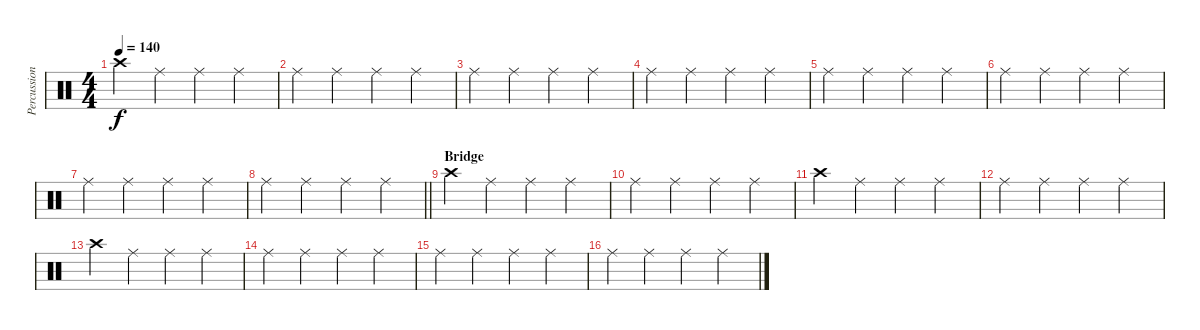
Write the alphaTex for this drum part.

\track ("Percussion" "Percussion") {instrument percussion}
\staff {score}
\articulation defaults
\ts (4 4)
\tempo 140
\clef neutral
\ks c "Crash high (hit)".4{dy f} "Ride (middle)".4 "Ride (middle)".4 "Ride (middle)".4
|
"Ride (middle)".4 "Ride (middle)".4 "Ride (middle)".4 "Ride (middle)".4 |
"Ride (middle)".4 "Ride (middle)".4 "Ride (middle)".4 "Ride (middle)".4 |
"Ride (middle)".4 "Ride (middle)".4 "Ride (middle)".4 "Ride (middle)".4 |
"Ride (middle)".4 "Ride (middle)".4 "Ride (middle)".4 "Ride (middle)".4 |
"Ride (middle)".4 "Ride (middle)".4 "Ride (middle)".4 "Ride (middle)".4 |
"Ride (middle)".4 "Ride (middle)".4 "Ride (middle)".4 "Ride (middle)".4 |
\barLineRight lightlight "Ride (middle)".4 "Ride (middle)".4 "Ride (middle)".4 "Ride (middle)".4
|
\section ("" "Bridge")
"Crash high (hit)".4 "Ride (middle)".4 "Ride (middle)".4 "Ride (middle)".4 |
"Ride (middle)".4 "Ride (middle)".4 "Ride (middle)".4 "Ride (middle)".4 |
"Crash high (hit)".4 "Ride (middle)".4 "Ride (middle)".4 "Ride (middle)".4 |
"Ride (middle)".4 "Ride (middle)".4 "Ride (middle)".4 "Ride (middle)".4 |
"Crash high (hit)".4 "Ride (middle)".4 "Ride (middle)".4 "Ride (middle)".4 |
"Ride (middle)".4 "Ride (middle)".4 "Ride (middle)".4 "Ride (middle)".4 |
"Ride (middle)".4 "Ride (middle)".4 "Ride (middle)".4 "Ride (middle)".4 |
"Ride (middle)".4 "Ride (middle)".4 "Ride (middle)".4 "Ride (middle)".4
